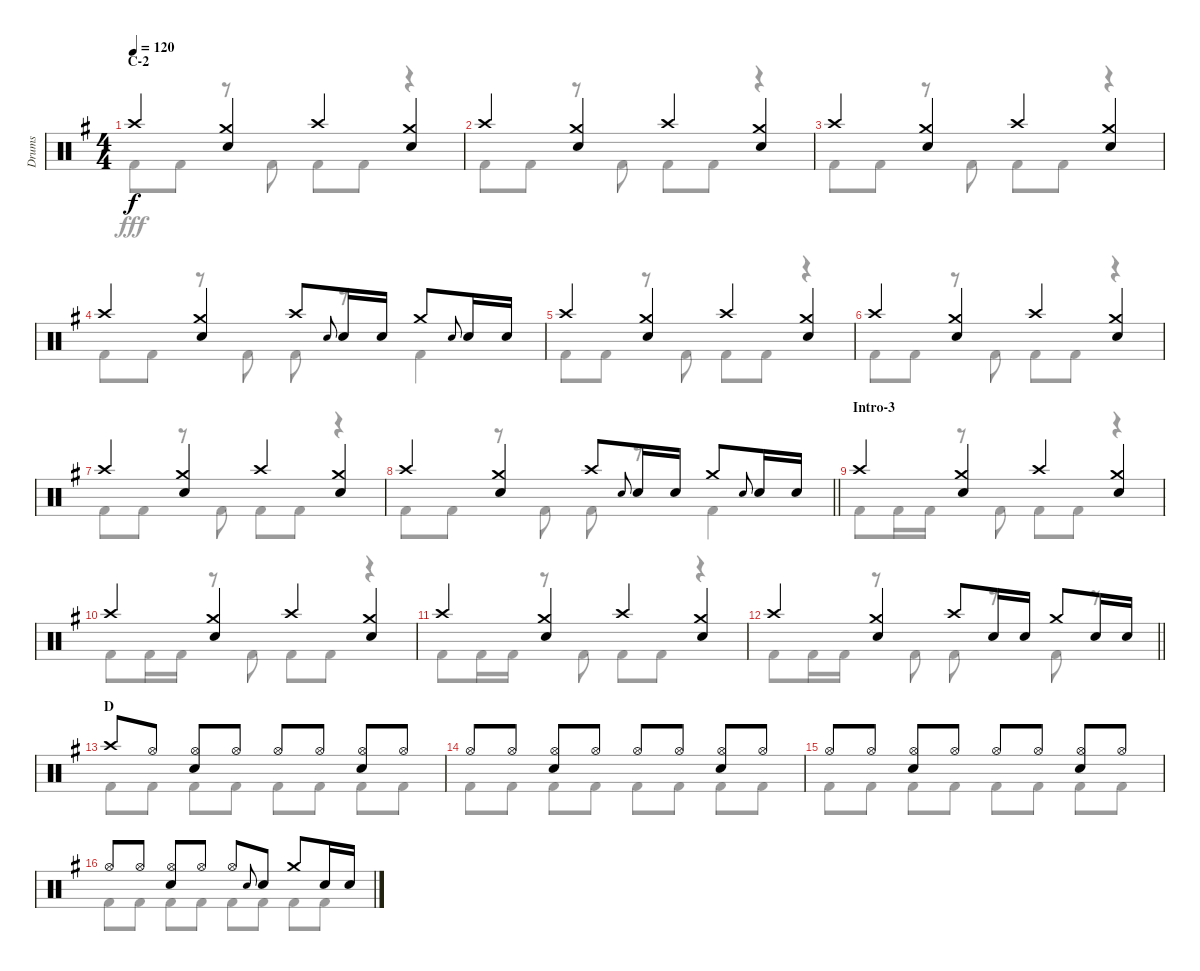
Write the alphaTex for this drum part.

\track ("Drums" "Drums") {instrument percussion}
\staff {score}
\articulation defaults
\voice
\ts (4 4)
\section ("" "C-2")
\tempo 120
\clef neutral
\ks eminor "Crash high (hit)".4{dy f}
("Crash medium (hit)" "Snare (hit) 2").4 "Crash high (hit)".4 ("Crash medium (hit)" "Snare (hit) 2").4 |
"Crash high (hit)".4 ("Crash medium (hit)" "Snare (hit) 2").4 "Crash high (hit)".4 ("Crash medium (hit)" "Snare (hit) 2").4 |
"Crash high (hit)".4 ("Crash medium (hit)" "Snare (hit) 2").4 "Crash high (hit)".4 ("Crash medium (hit)" "Snare (hit) 2").4 |
"Crash high (hit)".4 ("Crash medium (hit)" "Snare (hit) 2").4 "Crash high (hit)".8 "Snare (hit) 2".8{gr onbeat} "Snare (hit) 2".16 "Snare (hit) 2".16 "Crash medium (hit)".8 "Snare (hit) 2".8{gr onbeat} "Snare (hit) 2".16 "Snare (hit) 2".16 |
"Crash high (hit)".4 ("Crash medium (hit)" "Snare (hit) 2").4 "Crash high (hit)".4 ("Crash medium (hit)" "Snare (hit) 2").4 |
"Crash high (hit)".4 ("Crash medium (hit)" "Snare (hit) 2").4 "Crash high (hit)".4 ("Crash medium (hit)" "Snare (hit) 2").4 |
"Crash high (hit)".4 ("Crash medium (hit)" "Snare (hit) 2").4 "Crash high (hit)".4 ("Crash medium (hit)" "Snare (hit) 2").4 |
\barLineRight lightlight "Crash high (hit)".4
("Crash medium (hit)" "Snare (hit) 2").4 "Crash high (hit)".8 "Snare (hit) 2".8{gr onbeat} "Snare (hit) 2".16 "Snare (hit) 2".16 "Crash medium (hit)".8 "Snare (hit) 2".8{gr onbeat} "Snare (hit) 2".16 "Snare (hit) 2".16 |
\section ("" "Intro-3")
"Crash high (hit)".4 ("Crash medium (hit)" "Snare (hit) 2").4 "Crash high (hit)".4 ("Crash medium (hit)" "Snare (hit) 2").4 |
"Crash high (hit)".4 ("Crash medium (hit)" "Snare (hit) 2").4 "Crash high (hit)".4 ("Crash medium (hit)" "Snare (hit) 2").4 |
"Crash high (hit)".4 ("Crash medium (hit)" "Snare (hit) 2").4 "Crash high (hit)".4 ("Crash medium (hit)" "Snare (hit) 2").4 |
\barLineRight lightlight "Crash high (hit)".4
("Crash medium (hit)" "Snare (hit) 2").4 "Crash high (hit)".8 "Snare (hit) 2".16 "Snare (hit) 2".16 "Crash medium (hit)".8 "Snare (hit) 2".16 "Snare (hit) 2".16 |
\section ("" "D")
"Crash high (hit)".8 "Hi-Hat (open)".8 ("Hi-Hat (open)" "Snare (hit) 2").8 "Hi-Hat (open)".8 "Hi-Hat (open)".8 "Hi-Hat (open)".8 ("Hi-Hat (open)" "Snare (hit) 2").8 "Hi-Hat (open)".8 |
"Hi-Hat (open)".8 "Hi-Hat (open)".8 ("Hi-Hat (open)" "Snare (hit) 2").8 "Hi-Hat (open)".8 "Hi-Hat (open)".8 "Hi-Hat (open)".8 ("Hi-Hat (open)" "Snare (hit) 2").8 "Hi-Hat (open)".8 |
"Hi-Hat (open)".8 "Hi-Hat (open)".8 ("Hi-Hat (open)" "Snare (hit) 2").8 "Hi-Hat (open)".8 "Hi-Hat (open)".8 "Hi-Hat (open)".8 ("Hi-Hat (open)" "Snare (hit) 2").8 "Hi-Hat (open)".8 |
"Hi-Hat (open)".8 "Hi-Hat (open)".8 ("Hi-Hat (open)" "Snare (hit) 2").8 "Hi-Hat (open)".8 "Hi-Hat (open)".8 "Snare (hit) 2".8{gr onbeat} "Snare (hit) 2".8 "Crash medium (hit)".8 "Snare (hit) 2".16 "Snare (hit) 2".16
\voice
\clef neutral
\ottava regular
\simile none
\ks eminor "Kick (hit) 2".8{dy fff} "Kick (hit) 2".8
r.8 "Kick (hit) 2".8 "Kick (hit) 2".8 "Kick (hit) 2".8 r.4 |
"Kick (hit) 2".8 "Kick (hit) 2".8 r.8 "Kick (hit) 2".8 "Kick (hit) 2".8 "Kick (hit) 2".8 r.4 |
"Kick (hit) 2".8 "Kick (hit) 2".8 r.8 "Kick (hit) 2".8 "Kick (hit) 2".8 "Kick (hit) 2".8 r.4 |
"Kick (hit) 2".8 "Kick (hit) 2".8 r.8 "Kick (hit) 2".8 "Kick (hit) 2".8 r.8 "Kick (hit) 2".4 |
"Kick (hit) 2".8 "Kick (hit) 2".8 r.8 "Kick (hit) 2".8 "Kick (hit) 2".8 "Kick (hit) 2".8 r.4 |
"Kick (hit) 2".8 "Kick (hit) 2".8 r.8 "Kick (hit) 2".8 "Kick (hit) 2".8 "Kick (hit) 2".8 r.4 |
"Kick (hit) 2".8 "Kick (hit) 2".8 r.8 "Kick (hit) 2".8 "Kick (hit) 2".8 "Kick (hit) 2".8 r.4 |
\barLineRight lightlight "Kick (hit) 2".8 "Kick (hit) 2".8
r.8 "Kick (hit) 2".8 "Kick (hit) 2".8 r.8 "Kick (hit) 2".4 |
"Kick (hit) 2".8 "Kick (hit) 2".16 "Kick (hit) 2".16 r.8 "Kick (hit) 2".8 "Kick (hit) 2".8 "Kick (hit) 2".8 r.4 |
"Kick (hit) 2".8 "Kick (hit) 2".16 "Kick (hit) 2".16 r.8 "Kick (hit) 2".8 "Kick (hit) 2".8 "Kick (hit) 2".8 r.4 |
"Kick (hit) 2".8 "Kick (hit) 2".16 "Kick (hit) 2".16 r.8 "Kick (hit) 2".8 "Kick (hit) 2".8 "Kick (hit) 2".8 r.4 |
\barLineRight lightlight "Kick (hit) 2".8 "Kick (hit) 2".16 "Kick (hit) 2".16
r.8 "Kick (hit) 2".8 "Kick (hit) 2".8 r.8 "Kick (hit) 2".8 r.8 |
"Kick (hit) 2".8 "Kick (hit) 2".8 "Kick (hit) 2".8 "Kick (hit) 2".8 "Kick (hit) 2".8 "Kick (hit) 2".8 "Kick (hit) 2".8 "Kick (hit) 2".8 |
"Kick (hit) 2".8 "Kick (hit) 2".8 "Kick (hit) 2".8 "Kick (hit) 2".8 "Kick (hit) 2".8 "Kick (hit) 2".8 "Kick (hit) 2".8 "Kick (hit) 2".8 |
"Kick (hit) 2".8 "Kick (hit) 2".8 "Kick (hit) 2".8 "Kick (hit) 2".8 "Kick (hit) 2".8 "Kick (hit) 2".8 "Kick (hit) 2".8 "Kick (hit) 2".8 |
"Kick (hit) 2".8 "Kick (hit) 2".8 "Kick (hit) 2".8 "Kick (hit) 2".8 "Kick (hit) 2".8 "Kick (hit) 2".8 "Kick (hit) 2".8 "Kick (hit) 2".8
